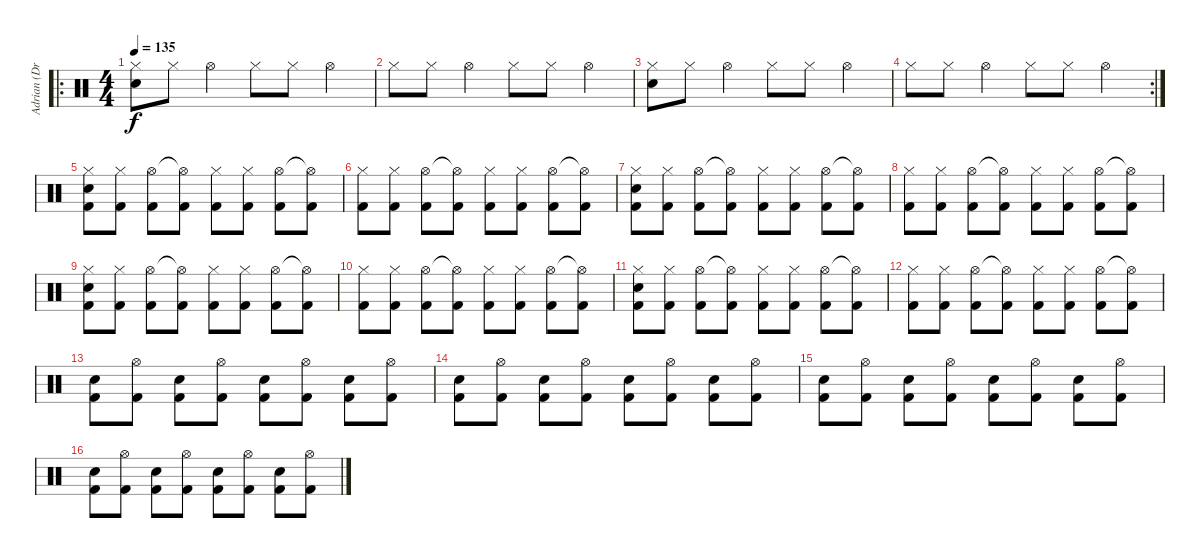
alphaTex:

\track ("Adrian (Drums)" "Adrian (Dr") {instrument percussion}
\staff {score}
\articulation defaults
\ro
\ts (4 4)
\tempo 135
\clef neutral
\ks c
("Hi-Hat (closed)" "Snare (hit) 2").8{dy f} "Hi-Hat (closed)".8 "Hi-Hat (open)".4 "Hi-Hat (closed)".8 "Hi-Hat (closed)".8 "Hi-Hat (open)".4 |
"Hi-Hat (closed)".8 "Hi-Hat (closed)".8 "Hi-Hat (open)".4 "Hi-Hat (closed)".8 "Hi-Hat (closed)".8 "Hi-Hat (open)".4 |
("Hi-Hat (closed)" "Snare (hit) 2").8 "Hi-Hat (closed)".8 "Hi-Hat (open)".4 "Hi-Hat (closed)".8 "Hi-Hat (closed)".8 "Hi-Hat (open)".4 |
\rc 2 "Hi-Hat (closed)".8 "Hi-Hat (closed)".8 "Hi-Hat (open)".4 "Hi-Hat (closed)".8 "Hi-Hat (closed)".8 "Hi-Hat (open)".4
|
("Hi-Hat (closed)" "Kick (hit) 2" "Snare (hit) 2").8 ("Hi-Hat (closed)" "Kick (hit) 2").8 ("Hi-Hat (open)" "Kick (hit) 2").8 ("Hi-Hat (open)"{t} "Kick (hit) 2").8 ("Hi-Hat (closed)" "Kick (hit) 2").8 ("Hi-Hat (closed)" "Kick (hit) 2").8 ("Hi-Hat (open)" "Kick (hit) 2").8 ("Hi-Hat (open)"{t} "Kick (hit) 2").8 |
("Hi-Hat (closed)" "Kick (hit) 2").8 ("Hi-Hat (closed)" "Kick (hit) 2").8 ("Hi-Hat (open)" "Kick (hit) 2").8 ("Hi-Hat (open)"{t} "Kick (hit) 2").8 ("Hi-Hat (closed)" "Kick (hit) 2").8 ("Hi-Hat (closed)" "Kick (hit) 2").8 ("Hi-Hat (open)" "Kick (hit) 2").8 ("Hi-Hat (open)"{t} "Kick (hit) 2").8 |
("Hi-Hat (closed)" "Kick (hit) 2" "Snare (hit) 2").8 ("Hi-Hat (closed)" "Kick (hit) 2").8 ("Hi-Hat (open)" "Kick (hit) 2").8 ("Hi-Hat (open)"{t} "Kick (hit) 2").8 ("Hi-Hat (closed)" "Kick (hit) 2").8 ("Hi-Hat (closed)" "Kick (hit) 2").8 ("Hi-Hat (open)" "Kick (hit) 2").8 ("Hi-Hat (open)"{t} "Kick (hit) 2").8 |
("Hi-Hat (closed)" "Kick (hit) 2").8 ("Hi-Hat (closed)" "Kick (hit) 2").8 ("Hi-Hat (open)" "Kick (hit) 2").8 ("Hi-Hat (open)"{t} "Kick (hit) 2").8 ("Hi-Hat (closed)" "Kick (hit) 2").8 ("Hi-Hat (closed)" "Kick (hit) 2").8 ("Hi-Hat (open)" "Kick (hit) 2").8 ("Hi-Hat (open)"{t} "Kick (hit) 2").8 |
("Hi-Hat (closed)" "Kick (hit) 2" "Snare (hit) 2").8 ("Hi-Hat (closed)" "Kick (hit) 2").8 ("Hi-Hat (open)" "Kick (hit) 2").8 ("Hi-Hat (open)"{t} "Kick (hit) 2").8 ("Hi-Hat (closed)" "Kick (hit) 2").8 ("Hi-Hat (closed)" "Kick (hit) 2").8 ("Hi-Hat (open)" "Kick (hit) 2").8 ("Hi-Hat (open)"{t} "Kick (hit) 2").8 |
("Hi-Hat (closed)" "Kick (hit) 2").8 ("Hi-Hat (closed)" "Kick (hit) 2").8 ("Hi-Hat (open)" "Kick (hit) 2").8 ("Hi-Hat (open)"{t} "Kick (hit) 2").8 ("Hi-Hat (closed)" "Kick (hit) 2").8 ("Hi-Hat (closed)" "Kick (hit) 2").8 ("Hi-Hat (open)" "Kick (hit) 2").8 ("Hi-Hat (open)"{t} "Kick (hit) 2").8 |
("Hi-Hat (closed)" "Kick (hit) 2" "Snare (hit) 2").8 ("Hi-Hat (closed)" "Kick (hit) 2").8 ("Hi-Hat (open)" "Kick (hit) 2").8 ("Hi-Hat (open)"{t} "Kick (hit) 2").8 ("Hi-Hat (closed)" "Kick (hit) 2").8 ("Hi-Hat (closed)" "Kick (hit) 2").8 ("Hi-Hat (open)" "Kick (hit) 2").8 ("Hi-Hat (open)"{t} "Kick (hit) 2").8 |
("Hi-Hat (closed)" "Kick (hit) 2").8 ("Hi-Hat (closed)" "Kick (hit) 2").8 ("Hi-Hat (open)" "Kick (hit) 2").8 ("Hi-Hat (open)"{t} "Kick (hit) 2").8 ("Hi-Hat (closed)" "Kick (hit) 2").8 ("Hi-Hat (closed)" "Kick (hit) 2").8 ("Hi-Hat (open)" "Kick (hit) 2").8 ("Hi-Hat (open)"{t} "Kick (hit) 2").8 |
("Snare (hit) 2" "Kick (hit) 2").8 ("Hi-Hat (open)" "Kick (hit) 2").8 ("Snare (hit) 2" "Kick (hit) 2").8 ("Hi-Hat (open)" "Kick (hit) 2").8 ("Snare (hit) 2" "Kick (hit) 2").8 ("Hi-Hat (open)" "Kick (hit) 2").8 ("Snare (hit) 2" "Kick (hit) 2").8 ("Hi-Hat (open)" "Kick (hit) 2").8 |
("Snare (hit) 2" "Kick (hit) 2").8 ("Hi-Hat (open)" "Kick (hit) 2").8 ("Snare (hit) 2" "Kick (hit) 2").8 ("Hi-Hat (open)" "Kick (hit) 2").8 ("Snare (hit) 2" "Kick (hit) 2").8 ("Hi-Hat (open)" "Kick (hit) 2").8 ("Snare (hit) 2" "Kick (hit) 2").8 ("Hi-Hat (open)" "Kick (hit) 2").8 |
("Snare (hit) 2" "Kick (hit) 2").8 ("Hi-Hat (open)" "Kick (hit) 2").8 ("Snare (hit) 2" "Kick (hit) 2").8 ("Hi-Hat (open)" "Kick (hit) 2").8 ("Snare (hit) 2" "Kick (hit) 2").8 ("Hi-Hat (open)" "Kick (hit) 2").8 ("Snare (hit) 2" "Kick (hit) 2").8 ("Hi-Hat (open)" "Kick (hit) 2").8 |
("Snare (hit) 2" "Kick (hit) 2").8 ("Hi-Hat (open)" "Kick (hit) 2").8 ("Snare (hit) 2" "Kick (hit) 2").8 ("Hi-Hat (open)" "Kick (hit) 2").8 ("Snare (hit) 2" "Kick (hit) 2").8 ("Hi-Hat (open)" "Kick (hit) 2").8 ("Snare (hit) 2" "Kick (hit) 2").8 ("Hi-Hat (open)" "Kick (hit) 2").8
